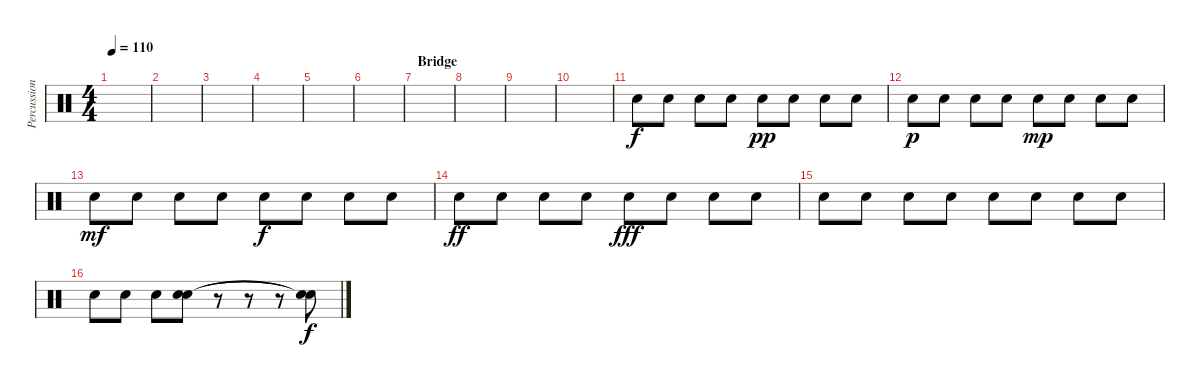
\track ("Percussions" "Percussion") {instrument percussion}
\staff {score}
\articulation defaults
\ts (4 4)
\tempo 110
\clef neutral
\ks c
|
|
|
|
|
|
\section ("" "Bridge")
|
|
|
|
"Electric Snare (hit)".8 "Electric Snare (hit)".8 "Electric Snare (hit)".8 "Electric Snare (hit)".8 "Electric Snare (hit)".8{dy pp} "Electric Snare (hit)".8 "Electric Snare (hit)".8 "Electric Snare (hit)".8 |
"Electric Snare (hit)".8{dy p} "Electric Snare (hit)".8 "Electric Snare (hit)".8 "Electric Snare (hit)".8 "Electric Snare (hit)".8{dy mp} "Electric Snare (hit)".8 "Electric Snare (hit)".8 "Electric Snare (hit)".8 |
"Electric Snare (hit)".8{dy mf} "Electric Snare (hit)".8 "Electric Snare (hit)".8 "Electric Snare (hit)".8 "Electric Snare (hit)".8{dy f} "Electric Snare (hit)".8 "Electric Snare (hit)".8 "Electric Snare (hit)".8 |
"Electric Snare (hit)".8{dy ff} "Electric Snare (hit)".8 "Electric Snare (hit)".8 "Electric Snare (hit)".8 "Electric Snare (hit)".8{dy fff} "Electric Snare (hit)".8 "Electric Snare (hit)".8 "Electric Snare (hit)".8 |
"Electric Snare (hit)".8 "Electric Snare (hit)".8 "Electric Snare (hit)".8 "Electric Snare (hit)".8 "Electric Snare (hit)".8 "Electric Snare (hit)".8 "Electric Snare (hit)".8 "Electric Snare (hit)".8 |
"Electric Snare (hit)".8 "Electric Snare (hit)".8 "Electric Snare (hit)".8 ("Electric Snare (hit)" "Electric Snare (hit)").8 r.8 r.8 r.8 ("Snare (hit)"{t} "Electric Snare (hit)"{t}).8{dy f}
